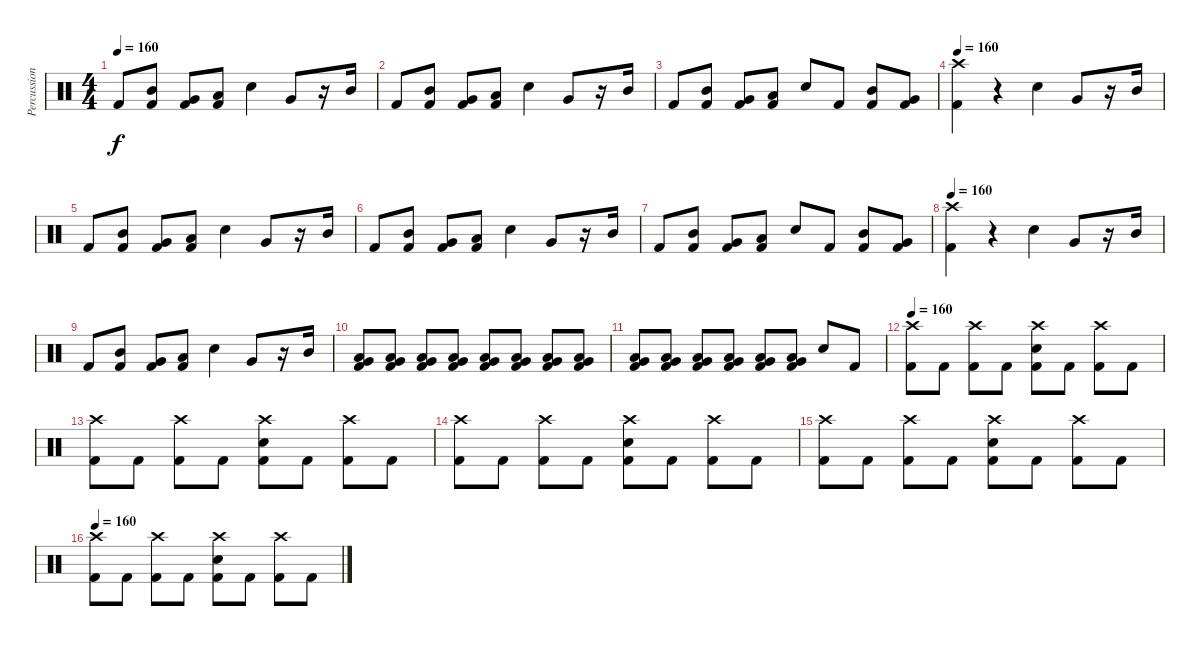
\track ("Percussions" "Percussion") {instrument percussion}
\staff {score}
\articulation defaults
\ts (4 4)
\tempo 160
\clef neutral
\ks c "Kick (hit) 2".8{dy f}
("Kick (hit) 2" "Mid Tom (hit)").8 ("Kick (hit) 2" "Very Low Tom (hit)").8 ("Kick (hit) 2" "Low Floor Tom (hit)").8 "Electric Snare (hit)".4 "Very Low Tom (hit)".8 r.16 "Mid Tom (hit)".16 |
"Kick (hit) 2".8 ("Kick (hit) 2" "Mid Tom (hit)").8 ("Kick (hit) 2" "Very Low Tom (hit)").8 ("Kick (hit) 2" "Low Floor Tom (hit)").8 "Electric Snare (hit)".4 "Very Low Tom (hit)".8 r.16 "Mid Tom (hit)".16 |
"Kick (hit) 2".8 ("Kick (hit) 2" "Mid Tom (hit)").8 ("Kick (hit) 2" "Very Low Tom (hit)").8 ("Kick (hit) 2" "Low Floor Tom (hit)").8 "Electric Snare (hit)".8 "Kick (hit) 2".8 ("Kick (hit) 2" "Mid Tom (hit)").8 ("Kick (hit) 2" "Very Low Tom (hit)").8 |
\tempo 160
("Kick (hit) 2" "Crash high (hit)").4 r.4 "Electric Snare (hit)".4 "Very Low Tom (hit)".8 r.16 "Mid Tom (hit)".16 |
"Kick (hit) 2".8 ("Kick (hit) 2" "Mid Tom (hit)").8 ("Kick (hit) 2" "Very Low Tom (hit)").8 ("Kick (hit) 2" "Low Floor Tom (hit)").8 "Electric Snare (hit)".4 "Very Low Tom (hit)".8 r.16 "Mid Tom (hit)".16 |
"Kick (hit) 2".8 ("Kick (hit) 2" "Mid Tom (hit)").8 ("Kick (hit) 2" "Very Low Tom (hit)").8 ("Kick (hit) 2" "Low Floor Tom (hit)").8 "Electric Snare (hit)".4 "Very Low Tom (hit)".8 r.16 "Mid Tom (hit)".16 |
"Kick (hit) 2".8 ("Kick (hit) 2" "Mid Tom (hit)").8 ("Kick (hit) 2" "Very Low Tom (hit)").8 ("Kick (hit) 2" "Low Floor Tom (hit)").8 "Electric Snare (hit)".8 "Kick (hit) 2".8 ("Kick (hit) 2" "Mid Tom (hit)").8 ("Kick (hit) 2" "Very Low Tom (hit)").8 |
\tempo 160
("Kick (hit) 2" "Crash high (hit)").4 r.4 "Electric Snare (hit)".4 "Very Low Tom (hit)".8 r.16 "Mid Tom (hit)".16 |
"Kick (hit) 2".8 ("Kick (hit) 2" "Mid Tom (hit)").8 ("Kick (hit) 2" "Very Low Tom (hit)").8 ("Kick (hit) 2" "Low Floor Tom (hit)").8 "Electric Snare (hit)".4 "Very Low Tom (hit)".8 r.16 "Mid Tom (hit)".16 |
("Kick (hit) 2" "Low Tom (hit)" "Very Low Tom (hit)").8{volume 4} ("Kick (hit) 2" "Low Tom (hit)" "Very Low Tom (hit)").8{volume 13} ("Kick (hit) 2" "Low Tom (hit)" "Very Low Tom (hit)").8 ("Kick (hit) 2" "Low Tom (hit)" "Very Low Tom (hit)").8 ("Kick (hit) 2" "Low Tom (hit)" "Very Low Tom (hit)").8 ("Kick (hit) 2" "Low Tom (hit)" "Very Low Tom (hit)").8 ("Kick (hit) 2" "Low Tom (hit)" "Very Low Tom (hit)").8 ("Kick (hit) 2" "Low Tom (hit)" "Very Low Tom (hit)").8 |
("Kick (hit) 2" "Low Tom (hit)" "Very Low Tom (hit)").8 ("Kick (hit) 2" "Low Tom (hit)" "Very Low Tom (hit)").8 ("Kick (hit) 2" "Low Tom (hit)" "Very Low Tom (hit)").8 ("Kick (hit) 2" "Low Tom (hit)" "Very Low Tom (hit)").8 ("Kick (hit) 2" "Low Tom (hit)" "Very Low Tom (hit)").8 ("Kick (hit) 2" "Low Tom (hit)" "Very Low Tom (hit)").8 "Electric Snare (hit)".8 "Kick (hit) 2".8 |
\tempo 160
("Kick (hit) 2" "Crash high (hit)").8 "Kick (hit) 2".8 ("Kick (hit) 2" "Crash high (hit)").8 "Kick (hit) 2".8 ("Kick (hit) 2" "Electric Snare (hit)" "Crash high (hit)").8 "Kick (hit) 2".8 ("Kick (hit) 2" "Crash high (hit)").8 "Kick (hit) 2".8 |
("Kick (hit) 2" "Crash high (hit)").8 "Kick (hit) 2".8 ("Kick (hit) 2" "Crash high (hit)").8 "Kick (hit) 2".8 ("Kick (hit) 2" "Electric Snare (hit)" "Crash high (hit)").8 "Kick (hit) 2".8 ("Kick (hit) 2" "Crash high (hit)").8 "Kick (hit) 2".8 |
("Kick (hit) 2" "Crash high (hit)").8 "Kick (hit) 2".8 ("Kick (hit) 2" "Crash high (hit)").8 "Kick (hit) 2".8 ("Kick (hit) 2" "Electric Snare (hit)" "Crash high (hit)").8 "Kick (hit) 2".8 ("Kick (hit) 2" "Crash high (hit)").8 "Kick (hit) 2".8 |
("Kick (hit) 2" "Crash high (hit)").8 "Kick (hit) 2".8 ("Kick (hit) 2" "Crash high (hit)").8 "Kick (hit) 2".8 ("Kick (hit) 2" "Electric Snare (hit)" "Crash high (hit)").8 "Kick (hit) 2".8 ("Kick (hit) 2" "Crash high (hit)").8 "Kick (hit) 2".8 |
\tempo 160
("Kick (hit) 2" "Crash high (hit)").8 "Kick (hit) 2".8 ("Kick (hit) 2" "Crash high (hit)").8 "Kick (hit) 2".8 ("Kick (hit) 2" "Electric Snare (hit)" "Crash high (hit)").8 "Kick (hit) 2".8 ("Kick (hit) 2" "Crash high (hit)").8 "Kick (hit) 2".8
